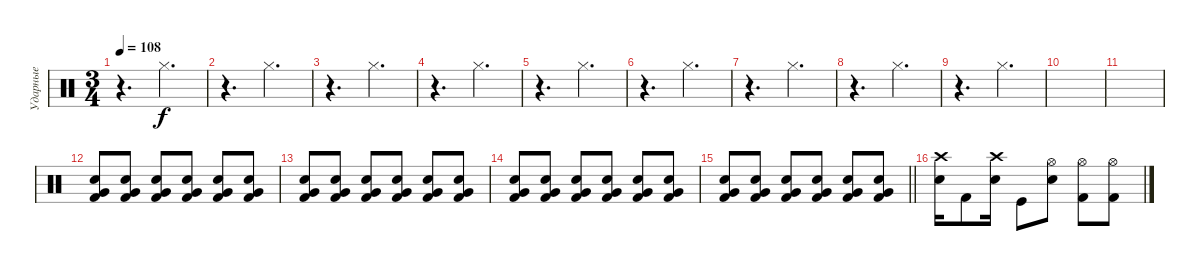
\track ("Ударные" "Ударные") {instrument percussion}
\staff {score}
\articulation defaults
\ts (3 4)
\tempo 108
\clef neutral
\ks c
r.4{d dy f} "Hi-Hat (closed)".4{d} |
r.4{d} "Hi-Hat (closed)".4{d} |
r.4{d} "Hi-Hat (closed)".4{d} |
r.4{d} "Hi-Hat (closed)".4{d} |
r.4{d} "Hi-Hat (closed)".4{d} |
r.4{d} "Hi-Hat (closed)".4{d} |
r.4{d} "Hi-Hat (closed)".4{d} |
r.4{d} "Hi-Hat (closed)".4{d} |
r.4{d} "Hi-Hat (closed)".4{d} |
|
|
("Kick (hit) 2" "Very Low Tom (hit)" "Snare (hit) 2").8 ("Kick (hit) 2" "Very Low Tom (hit)" "Snare (hit) 2").8 ("Kick (hit) 2" "Very Low Tom (hit)" "Snare (hit) 2").8 ("Kick (hit) 2" "Very Low Tom (hit)" "Snare (hit) 2").8 ("Kick (hit) 2" "Very Low Tom (hit)" "Snare (hit) 2").8 ("Kick (hit) 2" "Very Low Tom (hit)" "Snare (hit) 2").8 |
("Kick (hit) 2" "Very Low Tom (hit)" "Snare (hit) 2").8 ("Kick (hit) 2" "Very Low Tom (hit)" "Snare (hit) 2").8 ("Kick (hit) 2" "Very Low Tom (hit)" "Snare (hit) 2").8 ("Kick (hit) 2" "Very Low Tom (hit)" "Snare (hit) 2").8 ("Kick (hit) 2" "Very Low Tom (hit)" "Snare (hit) 2").8 ("Kick (hit) 2" "Very Low Tom (hit)" "Snare (hit) 2").8 |
("Kick (hit) 2" "Very Low Tom (hit)" "Snare (hit) 2").8 ("Kick (hit) 2" "Very Low Tom (hit)" "Snare (hit) 2").8 ("Kick (hit) 2" "Very Low Tom (hit)" "Snare (hit) 2").8 ("Kick (hit) 2" "Very Low Tom (hit)" "Snare (hit) 2").8 ("Kick (hit) 2" "Very Low Tom (hit)" "Snare (hit) 2").8 ("Kick (hit) 2" "Very Low Tom (hit)" "Snare (hit) 2").8 |
\barLineRight lightlight
("Kick (hit) 2" "Very Low Tom (hit)" "Snare (hit) 2").8 ("Kick (hit) 2" "Very Low Tom (hit)" "Snare (hit) 2").8 ("Kick (hit) 2" "Very Low Tom (hit)" "Snare (hit) 2").8 ("Kick (hit) 2" "Very Low Tom (hit)" "Snare (hit) 2").8 ("Kick (hit) 2" "Very Low Tom (hit)" "Snare (hit) 2").8 ("Kick (hit) 2" "Very Low Tom (hit)" "Snare (hit) 2").8 |
("Snare (hit) 2" "Crash high (hit)").16 "Kick (hit) 2".8 ("Snare (hit) 2" "Crash high (hit)").16 "Kick (hit)".8 ("Snare (hit) 2" "Hi-Hat (open)").8 ("Kick (hit) 2" "Hi-Hat (open)").8 ("Kick (hit) 2" "Hi-Hat (open)").8
